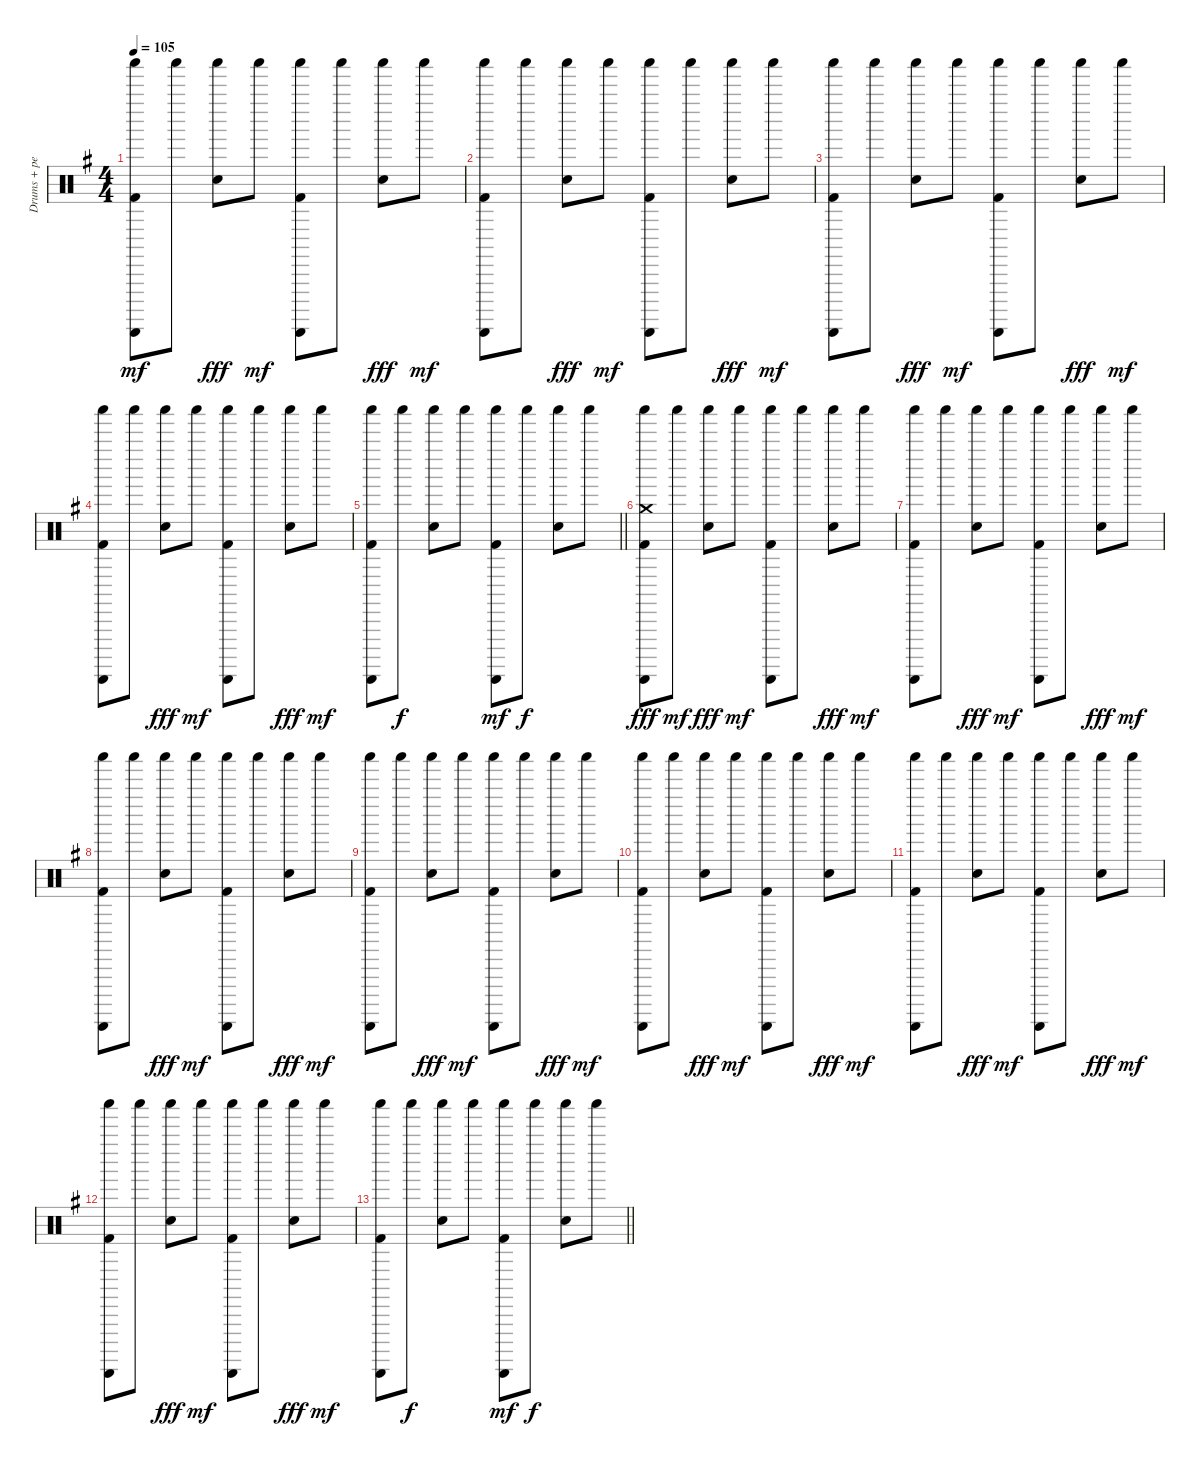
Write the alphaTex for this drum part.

\track ("Drums + percussion" "Drums + pe") {instrument percussion}
\staff {score}
\articulation defaults
\ts (4 4)
\tempo 105
\clef neutral
\ks g
("Shaker (hit)" "Guiro (scrap-return)" "Kick (hit) 2").8{dy mf} "Shaker (hit)".8 ("Shaker (hit)" "Snare (hit) 2").8{dy fff} "Shaker (hit)".8{dy mf} ("Shaker (hit)" "Guiro (scrap-return)" "Kick (hit) 2").8 "Shaker (hit)".8 ("Shaker (hit)" "Snare (hit) 2").8{dy fff} "Shaker (hit)".8{dy mf} |
("Shaker (hit)" "Guiro (scrap-return)" "Kick (hit) 2").8 "Shaker (hit)".8 ("Shaker (hit)" "Snare (hit) 2").8{dy fff} "Shaker (hit)".8{dy mf} ("Shaker (hit)" "Guiro (scrap-return)" "Kick (hit) 2").8 "Shaker (hit)".8 ("Shaker (hit)" "Snare (hit) 2").8{dy fff} "Shaker (hit)".8{dy mf} |
("Shaker (hit)" "Guiro (scrap-return)" "Kick (hit) 2").8 "Shaker (hit)".8 ("Shaker (hit)" "Snare (hit) 2").8{dy fff} "Shaker (hit)".8{dy mf} ("Shaker (hit)" "Guiro (scrap-return)" "Kick (hit) 2").8 "Shaker (hit)".8 ("Shaker (hit)" "Snare (hit) 2").8{dy fff} "Shaker (hit)".8{dy mf} |
("Shaker (hit)" "Guiro (scrap-return)" "Kick (hit) 2").8 "Shaker (hit)".8 ("Shaker (hit)" "Snare (hit) 2").8{dy fff} "Shaker (hit)".8{dy mf} ("Shaker (hit)" "Guiro (scrap-return)" "Kick (hit) 2").8 "Shaker (hit)".8 ("Shaker (hit)" "Snare (hit) 2").8{dy fff} "Shaker (hit)".8{dy mf} |
\barLineRight lightlight
("Shaker (hit)" "Guiro (scrap-return)" "Kick (hit) 2").8 "Shaker (hit)".8{dy f} ("Shaker (hit)" "Snare (hit) 2").8 "Shaker (hit)".8 ("Shaker (hit)" "Guiro (scrap-return)" "Kick (hit) 2").8{dy mf} "Shaker (hit)".8{dy f} ("Shaker (hit)" "Snare (hit) 2").8 "Shaker (hit)".8 |
("Shaker (hit)" "Guiro (scrap-return)" "Crash medium (hit)" "Kick (hit) 2").8{dy fff} "Shaker (hit)".8{dy mf} ("Shaker (hit)" "Snare (hit) 2").8{dy fff} "Shaker (hit)".8{dy mf} ("Shaker (hit)" "Guiro (scrap-return)" "Kick (hit) 2").8 "Shaker (hit)".8 ("Shaker (hit)" "Snare (hit) 2").8{dy fff} "Shaker (hit)".8{dy mf} |
("Shaker (hit)" "Guiro (scrap-return)" "Kick (hit) 2").8 "Shaker (hit)".8 ("Shaker (hit)" "Snare (hit) 2").8{dy fff} "Shaker (hit)".8{dy mf} ("Shaker (hit)" "Guiro (scrap-return)" "Kick (hit) 2").8 "Shaker (hit)".8 ("Shaker (hit)" "Snare (hit) 2").8{dy fff} "Shaker (hit)".8{dy mf} |
("Shaker (hit)" "Guiro (scrap-return)" "Kick (hit) 2").8 "Shaker (hit)".8 ("Shaker (hit)" "Snare (hit) 2").8{dy fff} "Shaker (hit)".8{dy mf} ("Shaker (hit)" "Guiro (scrap-return)" "Kick (hit) 2").8 "Shaker (hit)".8 ("Shaker (hit)" "Snare (hit) 2").8{dy fff} "Shaker (hit)".8{dy mf} |
("Shaker (hit)" "Guiro (scrap-return)" "Kick (hit) 2").8 "Shaker (hit)".8 ("Shaker (hit)" "Snare (hit) 2").8{dy fff} "Shaker (hit)".8{dy mf} ("Shaker (hit)" "Guiro (scrap-return)" "Kick (hit) 2").8 "Shaker (hit)".8 ("Shaker (hit)" "Snare (hit) 2").8{dy fff} "Shaker (hit)".8{dy mf} |
("Shaker (hit)" "Guiro (scrap-return)" "Kick (hit) 2").8{volume 0} "Shaker (hit)".8 ("Shaker (hit)" "Snare (hit) 2").8{dy fff} "Shaker (hit)".8{dy mf} ("Shaker (hit)" "Guiro (scrap-return)" "Kick (hit) 2").8 "Shaker (hit)".8 ("Shaker (hit)" "Snare (hit) 2").8{dy fff} "Shaker (hit)".8{dy mf} |
("Shaker (hit)" "Guiro (scrap-return)" "Kick (hit) 2").8 "Shaker (hit)".8 ("Shaker (hit)" "Snare (hit) 2").8{dy fff} "Shaker (hit)".8{dy mf} ("Shaker (hit)" "Guiro (scrap-return)" "Kick (hit) 2").8 "Shaker (hit)".8 ("Shaker (hit)" "Snare (hit) 2").8{dy fff} "Shaker (hit)".8{dy mf} |
("Shaker (hit)" "Guiro (scrap-return)" "Kick (hit) 2").8 "Shaker (hit)".8 ("Shaker (hit)" "Snare (hit) 2").8{dy fff} "Shaker (hit)".8{dy mf} ("Shaker (hit)" "Guiro (scrap-return)" "Kick (hit) 2").8 "Shaker (hit)".8 ("Shaker (hit)" "Snare (hit) 2").8{dy fff} "Shaker (hit)".8{dy mf} |
\barLineRight lightlight
("Shaker (hit)" "Guiro (scrap-return)" "Kick (hit) 2").8 "Shaker (hit)".8{dy f} ("Shaker (hit)" "Snare (hit) 2").8 "Shaker (hit)".8 ("Shaker (hit)" "Guiro (scrap-return)" "Kick (hit) 2").8{dy mf} "Shaker (hit)".8{dy f} ("Shaker (hit)" "Snare (hit) 2").8 "Shaker (hit)".8
